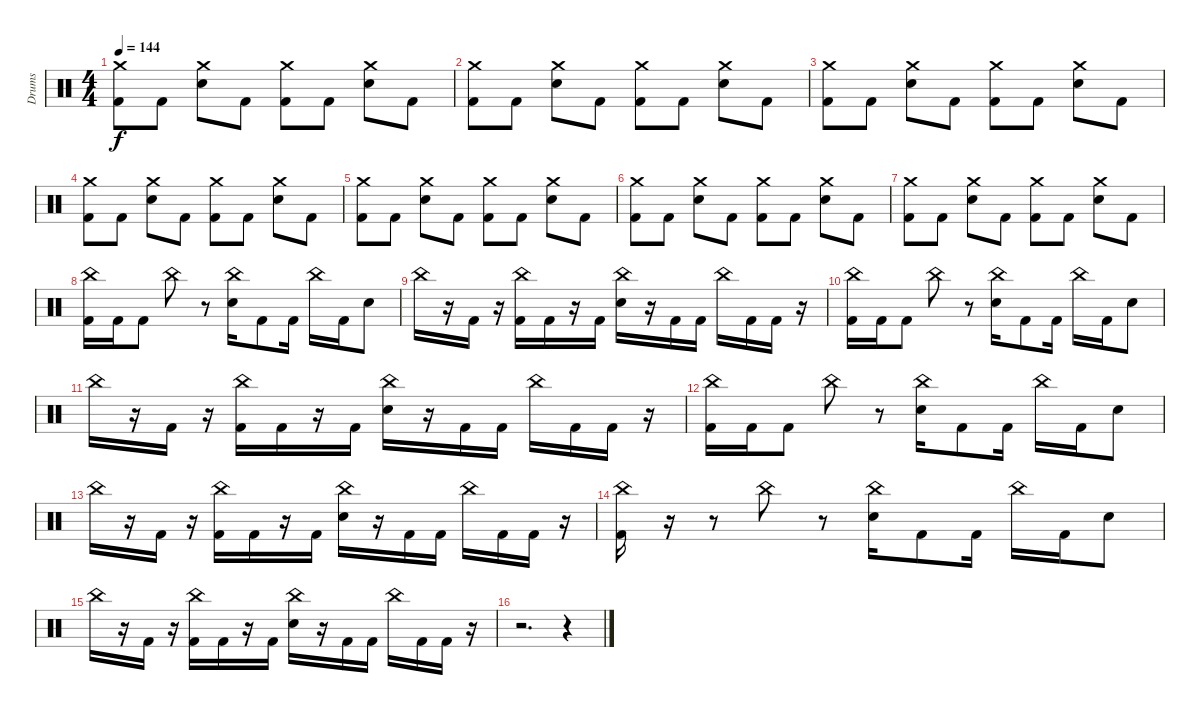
\track ("Drums" "Drums") {instrument percussion}
\staff {score}
\articulation defaults
\ts (4 4)
\tempo 144
\clef neutral
\ks c
("Crash medium (hit)" "Kick (hit) 2").8{dy f} "Kick (hit) 2".8 ("Crash medium (hit)" "Electric Snare (hit)").8 "Kick (hit) 2".8 ("Crash medium (hit)" "Kick (hit) 2").8 "Kick (hit) 2".8 ("Crash medium (hit)" "Electric Snare (hit)").8 "Kick (hit) 2".8 |
("Crash medium (hit)" "Kick (hit) 2").8 "Kick (hit) 2".8 ("Crash medium (hit)" "Electric Snare (hit)").8 "Kick (hit) 2".8 ("Crash medium (hit)" "Kick (hit) 2").8 "Kick (hit) 2".8 ("Crash medium (hit)" "Electric Snare (hit)").8 "Kick (hit) 2".8 |
("Crash medium (hit)" "Kick (hit) 2").8 "Kick (hit) 2".8 ("Crash medium (hit)" "Electric Snare (hit)").8 "Kick (hit) 2".8 ("Crash medium (hit)" "Kick (hit) 2").8 "Kick (hit) 2".8 ("Crash medium (hit)" "Electric Snare (hit)").8 "Kick (hit) 2".8 |
("Crash medium (hit)" "Kick (hit) 2").8 "Kick (hit) 2".8 ("Crash medium (hit)" "Electric Snare (hit)").8 "Kick (hit) 2".8 ("Crash medium (hit)" "Kick (hit) 2").8 "Kick (hit) 2".8 ("Crash medium (hit)" "Electric Snare (hit)").8 "Kick (hit) 2".8 |
("Crash medium (hit)" "Kick (hit) 2").8 "Kick (hit) 2".8 ("Crash medium (hit)" "Electric Snare (hit)").8 "Kick (hit) 2".8 ("Crash medium (hit)" "Kick (hit) 2").8 "Kick (hit) 2".8 ("Crash medium (hit)" "Electric Snare (hit)").8 "Kick (hit) 2".8 |
("Crash medium (hit)" "Kick (hit) 2").8 "Kick (hit) 2".8 ("Crash medium (hit)" "Electric Snare (hit)").8 "Kick (hit) 2".8 ("Crash medium (hit)" "Kick (hit) 2").8 "Kick (hit) 2".8 ("Crash medium (hit)" "Electric Snare (hit)").8 "Kick (hit) 2".8 |
("Crash medium (hit)" "Kick (hit) 2").8 "Kick (hit) 2".8 ("Crash medium (hit)" "Electric Snare (hit)").8 "Kick (hit) 2".8 ("Crash medium (hit)" "Kick (hit) 2").8 "Kick (hit) 2".8 ("Crash medium (hit)" "Electric Snare (hit)").8 "Kick (hit) 2".8 |
("China (hit)" "Kick (hit) 2").16 "Kick (hit) 2".16 "Kick (hit) 2".8 "China (hit)".8 r.8 ("China (hit)" "Electric Snare (hit)").16 "Kick (hit) 2".8 "Kick (hit) 2".16 "China (hit)".16 "Kick (hit) 2".16 "Electric Snare (hit)".8 |
"China (hit)".16 r.16 "Kick (hit) 2".16 r.16 ("China (hit)" "Kick (hit) 2").16 "Kick (hit) 2".16 r.16 "Kick (hit) 2".16 ("China (hit)" "Electric Snare (hit)").16 r.16 "Kick (hit) 2".16 "Kick (hit) 2".16 "China (hit)".16 "Kick (hit) 2".16 "Kick (hit) 2".16 r.16 |
("China (hit)" "Kick (hit) 2").16 "Kick (hit) 2".16 "Kick (hit) 2".8 "China (hit)".8 r.8 ("China (hit)" "Electric Snare (hit)").16 "Kick (hit) 2".8 "Kick (hit) 2".16 "China (hit)".16 "Kick (hit) 2".16 "Electric Snare (hit)".8 |
"China (hit)".16 r.16 "Kick (hit) 2".16 r.16 ("China (hit)" "Kick (hit) 2").16 "Kick (hit) 2".16 r.16 "Kick (hit) 2".16 ("China (hit)" "Electric Snare (hit)").16 r.16 "Kick (hit) 2".16 "Kick (hit) 2".16 "China (hit)".16 "Kick (hit) 2".16 "Kick (hit) 2".16 r.16 |
("China (hit)" "Kick (hit) 2").16 "Kick (hit) 2".16 "Kick (hit) 2".8 "China (hit)".8 r.8 ("China (hit)" "Electric Snare (hit)").16 "Kick (hit) 2".8 "Kick (hit) 2".16 "China (hit)".16 "Kick (hit) 2".16 "Electric Snare (hit)".8 |
"China (hit)".16 r.16 "Kick (hit) 2".16 r.16 ("China (hit)" "Kick (hit) 2").16 "Kick (hit) 2".16 r.16 "Kick (hit) 2".16 ("China (hit)" "Electric Snare (hit)").16 r.16 "Kick (hit) 2".16 "Kick (hit) 2".16 "China (hit)".16 "Kick (hit) 2".16 "Kick (hit) 2".16 r.16 |
("China (hit)" "Kick (hit) 2").16 r.16 r.8 "China (hit)".8 r.8 ("China (hit)" "Electric Snare (hit)").16 "Kick (hit) 2".8 "Kick (hit) 2".16 "China (hit)".16 "Kick (hit) 2".16 "Electric Snare (hit)".8 |
"China (hit)".16 r.16 "Kick (hit) 2".16 r.16 ("China (hit)" "Kick (hit) 2").16 "Kick (hit) 2".16 r.16 "Kick (hit) 2".16 ("China (hit)" "Electric Snare (hit)").16 r.16 "Kick (hit) 2".16 "Kick (hit) 2".16 "China (hit)".16 "Kick (hit) 2".16 "Kick (hit) 2".16 r.16 |
r.2{d} r.4
